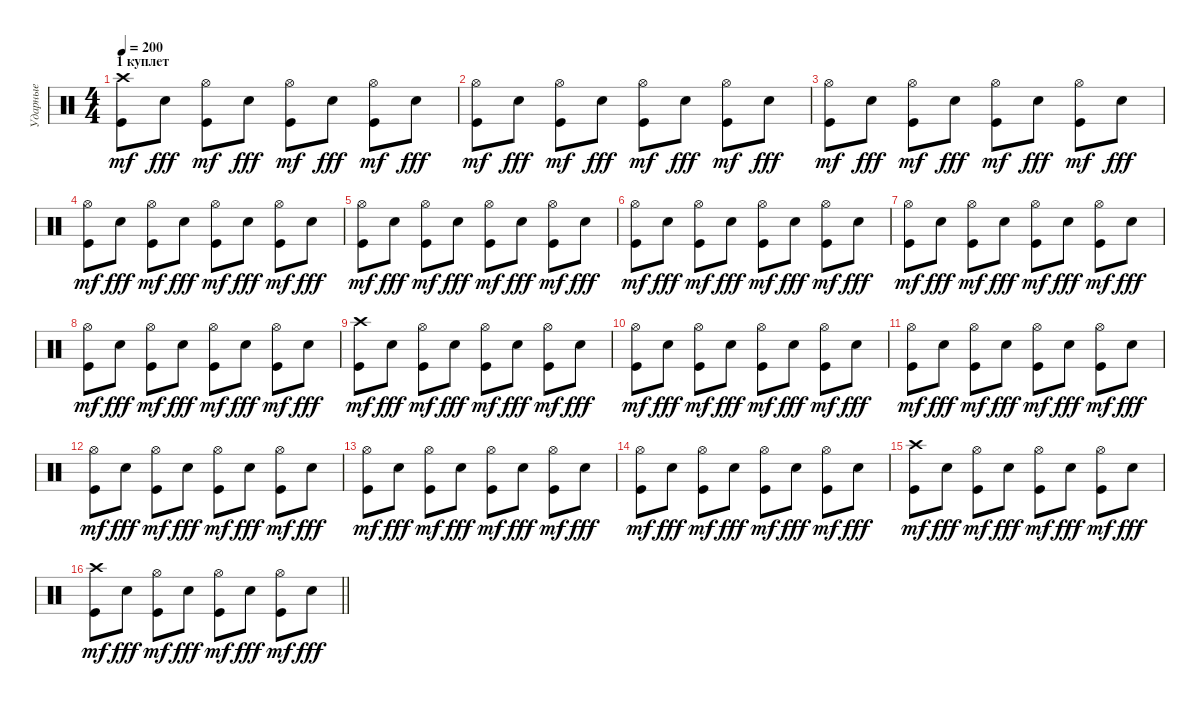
\track ("Ударные" "Ударные") {instrument percussion}
\staff {score}
\articulation defaults
\ts (4 4)
\section ("" "1 куплет")
\tempo 200
\clef neutral
\ks c
("Kick (hit)" "Crash high (hit)").8{dy mf} "Electric Snare (hit)".8{dy fff} ("Kick (hit)" "Hi-Hat (open)").8{dy mf} "Electric Snare (hit)".8{dy fff} ("Kick (hit)" "Hi-Hat (open)").8{dy mf} "Electric Snare (hit)".8{dy fff} ("Kick (hit)" "Hi-Hat (open)").8{dy mf} "Electric Snare (hit)".8{dy fff} |
("Kick (hit)" "Hi-Hat (open)").8{dy mf} "Electric Snare (hit)".8{dy fff} ("Kick (hit)" "Hi-Hat (open)").8{dy mf} "Electric Snare (hit)".8{dy fff} ("Kick (hit)" "Hi-Hat (open)").8{dy mf} "Electric Snare (hit)".8{dy fff} ("Kick (hit)" "Hi-Hat (open)").8{dy mf} "Electric Snare (hit)".8{dy fff} |
("Kick (hit)" "Hi-Hat (open)").8{dy mf} "Electric Snare (hit)".8{dy fff} ("Kick (hit)" "Hi-Hat (open)").8{dy mf} "Electric Snare (hit)".8{dy fff} ("Kick (hit)" "Hi-Hat (open)").8{dy mf} "Electric Snare (hit)".8{dy fff} ("Kick (hit)" "Hi-Hat (open)").8{dy mf} "Electric Snare (hit)".8{dy fff} |
("Kick (hit)" "Hi-Hat (open)").8{dy mf} "Electric Snare (hit)".8{dy fff} ("Kick (hit)" "Hi-Hat (open)").8{dy mf} "Electric Snare (hit)".8{dy fff} ("Kick (hit)" "Hi-Hat (open)").8{dy mf} "Electric Snare (hit)".8{dy fff} ("Kick (hit)" "Hi-Hat (open)").8{dy mf} "Electric Snare (hit)".8{dy fff} |
("Kick (hit)" "Hi-Hat (open)").8{dy mf} "Electric Snare (hit)".8{dy fff} ("Kick (hit)" "Hi-Hat (open)").8{dy mf} "Electric Snare (hit)".8{dy fff} ("Kick (hit)" "Hi-Hat (open)").8{dy mf} "Electric Snare (hit)".8{dy fff} ("Kick (hit)" "Hi-Hat (open)").8{dy mf} "Electric Snare (hit)".8{dy fff} |
("Kick (hit)" "Hi-Hat (open)").8{dy mf} "Electric Snare (hit)".8{dy fff} ("Kick (hit)" "Hi-Hat (open)").8{dy mf} "Electric Snare (hit)".8{dy fff} ("Kick (hit)" "Hi-Hat (open)").8{dy mf} "Electric Snare (hit)".8{dy fff} ("Kick (hit)" "Hi-Hat (open)").8{dy mf} "Electric Snare (hit)".8{dy fff} |
("Kick (hit)" "Hi-Hat (open)").8{dy mf} "Electric Snare (hit)".8{dy fff} ("Kick (hit)" "Hi-Hat (open)").8{dy mf} "Electric Snare (hit)".8{dy fff} ("Kick (hit)" "Hi-Hat (open)").8{dy mf} "Electric Snare (hit)".8{dy fff} ("Kick (hit)" "Hi-Hat (open)").8{dy mf} "Electric Snare (hit)".8{dy fff} |
("Kick (hit)" "Hi-Hat (open)").8{dy mf} "Electric Snare (hit)".8{dy fff} ("Kick (hit)" "Hi-Hat (open)").8{dy mf} "Electric Snare (hit)".8{dy fff} ("Kick (hit)" "Hi-Hat (open)").8{dy mf} "Electric Snare (hit)".8{dy fff} ("Kick (hit)" "Hi-Hat (open)").8{dy mf} "Electric Snare (hit)".8{dy fff} |
("Kick (hit)" "Crash high (hit)").8{dy mf} "Electric Snare (hit)".8{dy fff} ("Kick (hit)" "Hi-Hat (open)").8{dy mf} "Electric Snare (hit)".8{dy fff} ("Kick (hit)" "Hi-Hat (open)").8{dy mf} "Electric Snare (hit)".8{dy fff} ("Kick (hit)" "Hi-Hat (open)").8{dy mf} "Electric Snare (hit)".8{dy fff} |
("Kick (hit)" "Hi-Hat (open)").8{dy mf} "Electric Snare (hit)".8{dy fff} ("Kick (hit)" "Hi-Hat (open)").8{dy mf} "Electric Snare (hit)".8{dy fff} ("Kick (hit)" "Hi-Hat (open)").8{dy mf} "Electric Snare (hit)".8{dy fff} ("Kick (hit)" "Hi-Hat (open)").8{dy mf} "Electric Snare (hit)".8{dy fff} |
("Kick (hit)" "Hi-Hat (open)").8{dy mf} "Electric Snare (hit)".8{dy fff} ("Kick (hit)" "Hi-Hat (open)").8{dy mf} "Electric Snare (hit)".8{dy fff} ("Kick (hit)" "Hi-Hat (open)").8{dy mf} "Electric Snare (hit)".8{dy fff} ("Kick (hit)" "Hi-Hat (open)").8{dy mf} "Electric Snare (hit)".8{dy fff} |
("Kick (hit)" "Hi-Hat (open)").8{dy mf} "Electric Snare (hit)".8{dy fff} ("Kick (hit)" "Hi-Hat (open)").8{dy mf} "Electric Snare (hit)".8{dy fff} ("Kick (hit)" "Hi-Hat (open)").8{dy mf} "Electric Snare (hit)".8{dy fff} ("Kick (hit)" "Hi-Hat (open)").8{dy mf} "Electric Snare (hit)".8{dy fff} |
("Kick (hit)" "Hi-Hat (open)").8{dy mf} "Electric Snare (hit)".8{dy fff} ("Kick (hit)" "Hi-Hat (open)").8{dy mf} "Electric Snare (hit)".8{dy fff} ("Kick (hit)" "Hi-Hat (open)").8{dy mf} "Electric Snare (hit)".8{dy fff} ("Kick (hit)" "Hi-Hat (open)").8{dy mf} "Electric Snare (hit)".8{dy fff} |
("Kick (hit)" "Hi-Hat (open)").8{dy mf} "Electric Snare (hit)".8{dy fff} ("Kick (hit)" "Hi-Hat (open)").8{dy mf} "Electric Snare (hit)".8{dy fff} ("Kick (hit)" "Hi-Hat (open)").8{dy mf} "Electric Snare (hit)".8{dy fff} ("Kick (hit)" "Hi-Hat (open)").8{dy mf} "Electric Snare (hit)".8{dy fff} |
("Kick (hit)" "Crash high (hit)").8{dy mf} "Electric Snare (hit)".8{dy fff} ("Kick (hit)" "Hi-Hat (open)").8{dy mf} "Electric Snare (hit)".8{dy fff} ("Kick (hit)" "Hi-Hat (open)").8{dy mf} "Electric Snare (hit)".8{dy fff} ("Kick (hit)" "Hi-Hat (open)").8{dy mf} "Electric Snare (hit)".8{dy fff} |
\barLineRight lightlight
("Kick (hit)" "Crash high (hit)").8{dy mf} "Electric Snare (hit)".8{dy fff} ("Kick (hit)" "Hi-Hat (open)").8{dy mf} "Electric Snare (hit)".8{dy fff} ("Kick (hit)" "Hi-Hat (open)").8{dy mf} "Electric Snare (hit)".8{dy fff} ("Kick (hit)" "Hi-Hat (open)").8{dy mf} "Electric Snare (hit)".8{dy fff}
